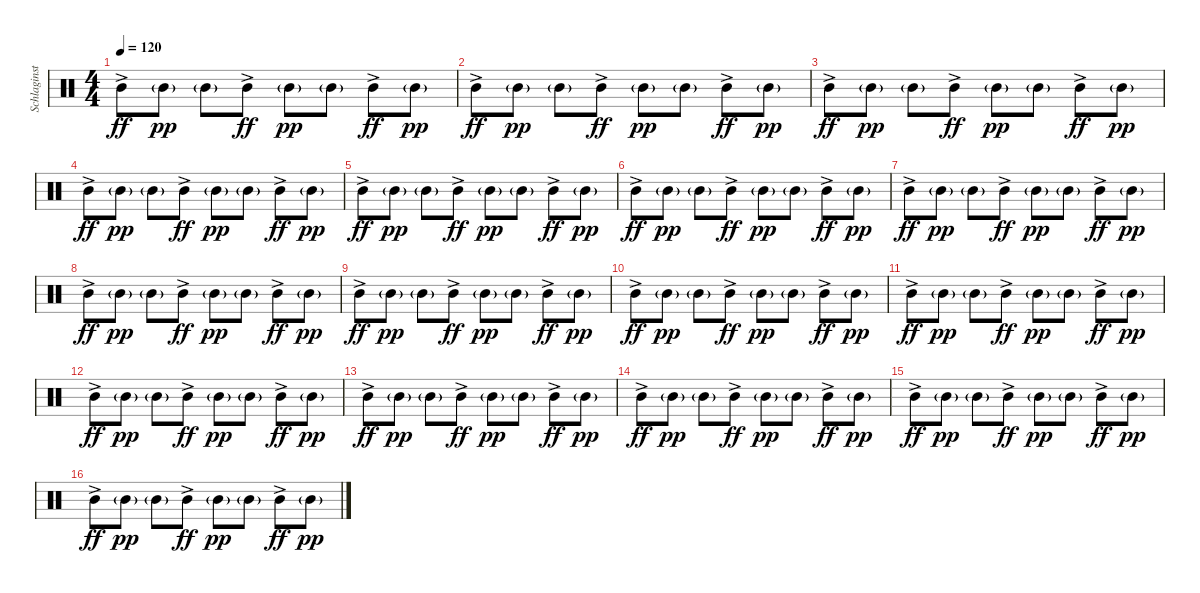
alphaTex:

\track ("Schlaginstrumente - Auswahl" "Schlaginst") {instrument percussion}
\staff {score}
\articulation defaults
\ts (4 4)
\tempo 120
\clef neutral
\ks c "Mid Tom (hit)"{ac}.8{dy ff} "Mid Tom (hit)"{g}.8{dy pp} "Mid Tom (hit)"{g}.8 "Mid Tom (hit)"{ac}.8{dy ff} "Mid Tom (hit)"{g}.8{dy pp} "Mid Tom (hit)"{g}.8 "Mid Tom (hit)"{ac}.8{dy ff} "Mid Tom (hit)"{g}.8{dy pp}
|
"Mid Tom (hit)"{ac}.8{dy ff} "Mid Tom (hit)"{g}.8{dy pp} "Mid Tom (hit)"{g}.8 "Mid Tom (hit)"{ac}.8{dy ff} "Mid Tom (hit)"{g}.8{dy pp} "Mid Tom (hit)"{g}.8 "Mid Tom (hit)"{ac}.8{dy ff} "Mid Tom (hit)"{g}.8{dy pp} |
"Mid Tom (hit)"{ac}.8{dy ff} "Mid Tom (hit)"{g}.8{dy pp} "Mid Tom (hit)"{g}.8 "Mid Tom (hit)"{ac}.8{dy ff} "Mid Tom (hit)"{g}.8{dy pp} "Mid Tom (hit)"{g}.8 "Mid Tom (hit)"{ac}.8{dy ff} "Mid Tom (hit)"{g}.8{dy pp} |
"Mid Tom (hit)"{ac}.8{dy ff} "Mid Tom (hit)"{g}.8{dy pp} "Mid Tom (hit)"{g}.8 "Mid Tom (hit)"{ac}.8{dy ff} "Mid Tom (hit)"{g}.8{dy pp} "Mid Tom (hit)"{g}.8 "Mid Tom (hit)"{ac}.8{dy ff} "Mid Tom (hit)"{g}.8{dy pp} |
"Mid Tom (hit)"{ac}.8{dy ff} "Mid Tom (hit)"{g}.8{dy pp} "Mid Tom (hit)"{g}.8 "Mid Tom (hit)"{ac}.8{dy ff} "Mid Tom (hit)"{g}.8{dy pp} "Mid Tom (hit)"{g}.8 "Mid Tom (hit)"{ac}.8{dy ff} "Mid Tom (hit)"{g}.8{dy pp} |
"Mid Tom (hit)"{ac}.8{dy ff} "Mid Tom (hit)"{g}.8{dy pp} "Mid Tom (hit)"{g}.8 "Mid Tom (hit)"{ac}.8{dy ff} "Mid Tom (hit)"{g}.8{dy pp} "Mid Tom (hit)"{g}.8 "Mid Tom (hit)"{ac}.8{dy ff} "Mid Tom (hit)"{g}.8{dy pp} |
"Mid Tom (hit)"{ac}.8{dy ff} "Mid Tom (hit)"{g}.8{dy pp} "Mid Tom (hit)"{g}.8 "Mid Tom (hit)"{ac}.8{dy ff} "Mid Tom (hit)"{g}.8{dy pp} "Mid Tom (hit)"{g}.8 "Mid Tom (hit)"{ac}.8{dy ff} "Mid Tom (hit)"{g}.8{dy pp} |
"Mid Tom (hit)"{ac}.8{dy ff} "Mid Tom (hit)"{g}.8{dy pp} "Mid Tom (hit)"{g}.8 "Mid Tom (hit)"{ac}.8{dy ff} "Mid Tom (hit)"{g}.8{dy pp} "Mid Tom (hit)"{g}.8 "Mid Tom (hit)"{ac}.8{dy ff} "Mid Tom (hit)"{g}.8{dy pp} |
"Mid Tom (hit)"{ac}.8{dy ff} "Mid Tom (hit)"{g}.8{dy pp} "Mid Tom (hit)"{g}.8 "Mid Tom (hit)"{ac}.8{dy ff} "Mid Tom (hit)"{g}.8{dy pp} "Mid Tom (hit)"{g}.8 "Mid Tom (hit)"{ac}.8{dy ff} "Mid Tom (hit)"{g}.8{dy pp} |
"Mid Tom (hit)"{ac}.8{dy ff} "Mid Tom (hit)"{g}.8{dy pp} "Mid Tom (hit)"{g}.8 "Mid Tom (hit)"{ac}.8{dy ff} "Mid Tom (hit)"{g}.8{dy pp} "Mid Tom (hit)"{g}.8 "Mid Tom (hit)"{ac}.8{dy ff} "Mid Tom (hit)"{g}.8{dy pp} |
"Mid Tom (hit)"{ac}.8{dy ff} "Mid Tom (hit)"{g}.8{dy pp} "Mid Tom (hit)"{g}.8 "Mid Tom (hit)"{ac}.8{dy ff} "Mid Tom (hit)"{g}.8{dy pp} "Mid Tom (hit)"{g}.8 "Mid Tom (hit)"{ac}.8{dy ff} "Mid Tom (hit)"{g}.8{dy pp} |
"Mid Tom (hit)"{ac}.8{dy ff} "Mid Tom (hit)"{g}.8{dy pp} "Mid Tom (hit)"{g}.8 "Mid Tom (hit)"{ac}.8{dy ff} "Mid Tom (hit)"{g}.8{dy pp} "Mid Tom (hit)"{g}.8 "Mid Tom (hit)"{ac}.8{dy ff} "Mid Tom (hit)"{g}.8{dy pp} |
"Mid Tom (hit)"{ac}.8{dy ff} "Mid Tom (hit)"{g}.8{dy pp} "Mid Tom (hit)"{g}.8 "Mid Tom (hit)"{ac}.8{dy ff} "Mid Tom (hit)"{g}.8{dy pp} "Mid Tom (hit)"{g}.8 "Mid Tom (hit)"{ac}.8{dy ff} "Mid Tom (hit)"{g}.8{dy pp} |
"Mid Tom (hit)"{ac}.8{dy ff} "Mid Tom (hit)"{g}.8{dy pp} "Mid Tom (hit)"{g}.8 "Mid Tom (hit)"{ac}.8{dy ff} "Mid Tom (hit)"{g}.8{dy pp} "Mid Tom (hit)"{g}.8 "Mid Tom (hit)"{ac}.8{dy ff} "Mid Tom (hit)"{g}.8{dy pp} |
"Mid Tom (hit)"{ac}.8{dy ff} "Mid Tom (hit)"{g}.8{dy pp} "Mid Tom (hit)"{g}.8 "Mid Tom (hit)"{ac}.8{dy ff} "Mid Tom (hit)"{g}.8{dy pp} "Mid Tom (hit)"{g}.8 "Mid Tom (hit)"{ac}.8{dy ff} "Mid Tom (hit)"{g}.8{dy pp} |
"Mid Tom (hit)"{ac}.8{dy ff} "Mid Tom (hit)"{g}.8{dy pp} "Mid Tom (hit)"{g}.8 "Mid Tom (hit)"{ac}.8{dy ff} "Mid Tom (hit)"{g}.8{dy pp} "Mid Tom (hit)"{g}.8 "Mid Tom (hit)"{ac}.8{dy ff} "Mid Tom (hit)"{g}.8{dy pp}
